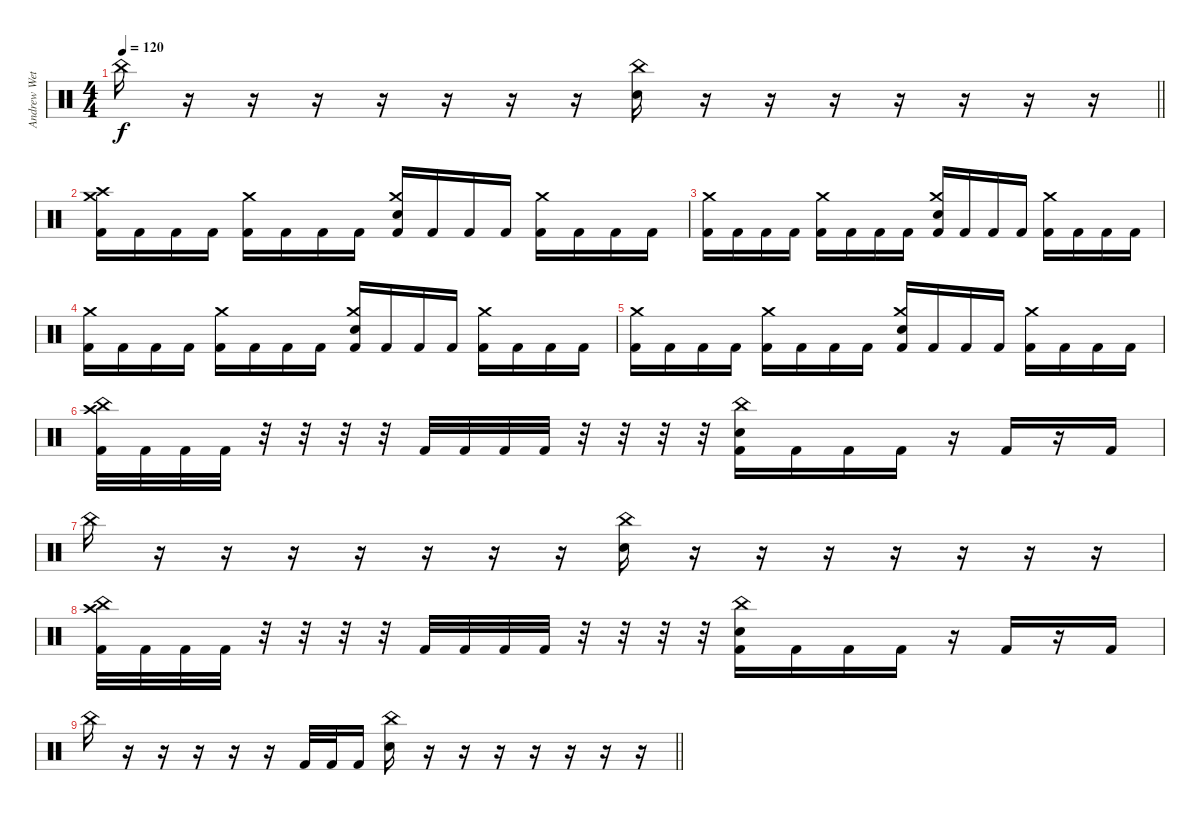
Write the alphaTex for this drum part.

\track ("Andrew Wetzel - Drums" "Andrew Wet") {instrument percussion}
\staff {score}
\articulation defaults
\ts (4 4)
\tempo 120
\clef neutral
\barLineRight lightlight
\ks c "China (hit)".16{dy f}
r.16 r.16 r.16 r.16 r.16 r.16 r.16 ("China (hit)" "Electric Snare (hit)").16 r.16 r.16 r.16 r.16 r.16 r.16 r.16 |
("Crash high (hit)" "Crash medium (hit)" "Kick (hit) 2").16 "Kick (hit) 2".16 "Kick (hit) 2".16 "Kick (hit) 2".16 ("Crash medium (hit)" "Kick (hit) 2").16 "Kick (hit) 2".16 "Kick (hit) 2".16 "Kick (hit) 2".16 ("Crash medium (hit)" "Electric Snare (hit)" "Kick (hit) 2").16 "Kick (hit) 2".16 "Kick (hit) 2".16 "Kick (hit) 2".16 ("Crash medium (hit)" "Kick (hit) 2").16 "Kick (hit) 2".16 "Kick (hit) 2".16 "Kick (hit) 2".16 |
("Crash medium (hit)" "Kick (hit) 2").16 "Kick (hit) 2".16 "Kick (hit) 2".16 "Kick (hit) 2".16 ("Crash medium (hit)" "Kick (hit) 2").16 "Kick (hit) 2".16 "Kick (hit) 2".16 "Kick (hit) 2".16 ("Crash medium (hit)" "Electric Snare (hit)" "Kick (hit) 2").16 "Kick (hit) 2".16 "Kick (hit) 2".16 "Kick (hit) 2".16 ("Crash medium (hit)" "Kick (hit) 2").16 "Kick (hit) 2".16 "Kick (hit) 2".16 "Kick (hit) 2".16 |
("Crash medium (hit)" "Kick (hit) 2").16 "Kick (hit) 2".16 "Kick (hit) 2".16 "Kick (hit) 2".16 ("Crash medium (hit)" "Kick (hit) 2").16 "Kick (hit) 2".16 "Kick (hit) 2".16 "Kick (hit) 2".16 ("Crash medium (hit)" "Electric Snare (hit)" "Kick (hit) 2").16 "Kick (hit) 2".16 "Kick (hit) 2".16 "Kick (hit) 2".16 ("Crash medium (hit)" "Kick (hit) 2").16 "Kick (hit) 2".16 "Kick (hit) 2".16 "Kick (hit) 2".16 |
("Crash medium (hit)" "Kick (hit) 2").16 "Kick (hit) 2".16 "Kick (hit) 2".16 "Kick (hit) 2".16 ("Crash medium (hit)" "Kick (hit) 2").16 "Kick (hit) 2".16 "Kick (hit) 2".16 "Kick (hit) 2".16 ("Crash medium (hit)" "Electric Snare (hit)" "Kick (hit) 2").16 "Kick (hit) 2".16 "Kick (hit) 2".16 "Kick (hit) 2".16 ("Crash medium (hit)" "Kick (hit) 2").16 "Kick (hit) 2".16 "Kick (hit) 2".16 "Kick (hit) 2".16 |
("China (hit)" "Crash high (hit)" "Kick (hit) 2").32 "Kick (hit) 2".32 "Kick (hit) 2".32 "Kick (hit) 2".32 r.32 r.32 r.32 r.32 "Kick (hit) 2".32 "Kick (hit) 2".32 "Kick (hit) 2".32 "Kick (hit) 2".32 r.32 r.32 r.32 r.32 ("China (hit)" "Electric Snare (hit)" "Kick (hit) 2").16 "Kick (hit) 2".16 "Kick (hit) 2".16 "Kick (hit) 2".16 r.16 "Kick (hit) 2".16 r.16 "Kick (hit) 2".16 |
"China (hit)".16 r.16 r.16 r.16 r.16 r.16 r.16 r.16 ("China (hit)" "Electric Snare (hit)").16 r.16 r.16 r.16 r.16 r.16 r.16 r.16 |
("China (hit)" "Crash high (hit)" "Kick (hit) 2").32 "Kick (hit) 2".32 "Kick (hit) 2".32 "Kick (hit) 2".32 r.32 r.32 r.32 r.32 "Kick (hit) 2".32 "Kick (hit) 2".32 "Kick (hit) 2".32 "Kick (hit) 2".32 r.32 r.32 r.32 r.32 ("China (hit)" "Electric Snare (hit)" "Kick (hit) 2").16 "Kick (hit) 2".16 "Kick (hit) 2".16 "Kick (hit) 2".16 r.16 "Kick (hit) 2".16 r.16 "Kick (hit) 2".16 |
\barLineRight lightlight "China (hit)".16
r.16 r.16 r.16 r.16 r.16 "Kick (hit) 2".32 "Kick (hit) 2".32 "Kick (hit) 2".16 ("China (hit)" "Electric Snare (hit)").16 r.16 r.16 r.16 r.16 r.16 r.16 r.16
